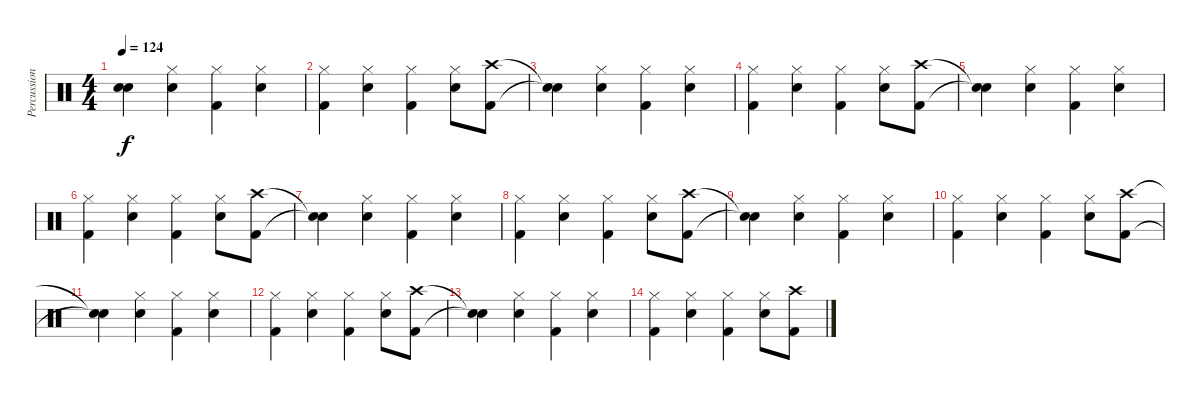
\track ("Percussion" "Percussion") {instrument percussion}
\staff {score}
\articulation defaults
\ts (4 4)
\tempo 124
\clef neutral
\ks c
("Snare (hit)"{t} "Snare (hit)"{t}).4{dy f} ("Hi-Hat (closed)" "Snare (hit) 2").4 ("Hi-Hat (closed)" "Kick (hit) 2").4 ("Hi-Hat (closed)" "Snare (hit) 2").4 |
("Hi-Hat (closed)" "Kick (hit) 2").4 ("Hi-Hat (closed)" "Snare (hit) 2").4 ("Hi-Hat (closed)" "Kick (hit) 2").4 ("Hi-Hat (closed)" "Snare (hit) 2").8 ("Crash high (hit)" "Kick (hit) 2").8 |
("Snare (hit)"{t} "Snare (hit)"{t}).4 ("Hi-Hat (closed)" "Snare (hit) 2").4 ("Hi-Hat (closed)" "Kick (hit) 2").4 ("Hi-Hat (closed)" "Snare (hit) 2").4 |
("Hi-Hat (closed)" "Kick (hit) 2").4 ("Hi-Hat (closed)" "Snare (hit) 2").4 ("Hi-Hat (closed)" "Kick (hit) 2").4 ("Hi-Hat (closed)" "Snare (hit) 2").8 ("Crash high (hit)" "Kick (hit) 2").8 |
("Snare (hit)"{t} "Snare (hit)"{t}).4 ("Hi-Hat (closed)" "Snare (hit) 2").4 ("Hi-Hat (closed)" "Kick (hit) 2").4 ("Hi-Hat (closed)" "Snare (hit) 2").4 |
("Hi-Hat (closed)" "Kick (hit) 2").4 ("Hi-Hat (closed)" "Snare (hit) 2").4 ("Hi-Hat (closed)" "Kick (hit) 2").4 ("Hi-Hat (closed)" "Snare (hit) 2").8 ("Crash high (hit)" "Kick (hit) 2").8 |
("Snare (hit)"{t} "Snare (hit)"{t}).4 ("Hi-Hat (closed)" "Snare (hit) 2").4 ("Hi-Hat (closed)" "Kick (hit) 2").4 ("Hi-Hat (closed)" "Snare (hit) 2").4 |
("Hi-Hat (closed)" "Kick (hit) 2").4 ("Hi-Hat (closed)" "Snare (hit) 2").4 ("Hi-Hat (closed)" "Kick (hit) 2").4 ("Hi-Hat (closed)" "Snare (hit) 2").8 ("Crash high (hit)" "Kick (hit) 2").8 |
("Snare (hit)"{t} "Snare (hit)"{t}).4{volume 9} ("Hi-Hat (closed)" "Snare (hit) 2").4 ("Hi-Hat (closed)" "Kick (hit) 2").4 ("Hi-Hat (closed)" "Snare (hit) 2").4 |
("Hi-Hat (closed)" "Kick (hit) 2").4 ("Hi-Hat (closed)" "Snare (hit) 2").4 ("Hi-Hat (closed)" "Kick (hit) 2").4 ("Hi-Hat (closed)" "Snare (hit) 2").8 ("Crash high (hit)" "Kick (hit) 2").8 |
("Snare (hit)"{t} "Snare (hit)"{t}).4{volume 7} ("Hi-Hat (closed)" "Snare (hit) 2").4 ("Hi-Hat (closed)" "Kick (hit) 2").4 ("Hi-Hat (closed)" "Snare (hit) 2").4 |
("Hi-Hat (closed)" "Kick (hit) 2").4 ("Hi-Hat (closed)" "Snare (hit) 2").4 ("Hi-Hat (closed)" "Kick (hit) 2").4 ("Hi-Hat (closed)" "Snare (hit) 2").8 ("Crash high (hit)" "Kick (hit) 2").8 |
("Snare (hit)"{t} "Snare (hit)"{t}).4{volume 3} ("Hi-Hat (closed)" "Snare (hit) 2").4 ("Hi-Hat (closed)" "Kick (hit) 2").4 ("Hi-Hat (closed)" "Snare (hit) 2").4 |
("Hi-Hat (closed)" "Kick (hit) 2").4{volume 0} ("Hi-Hat (closed)" "Snare (hit) 2").4 ("Hi-Hat (closed)" "Kick (hit) 2").4 ("Hi-Hat (closed)" "Snare (hit) 2").8 ("Crash high (hit)" "Kick (hit) 2").8
